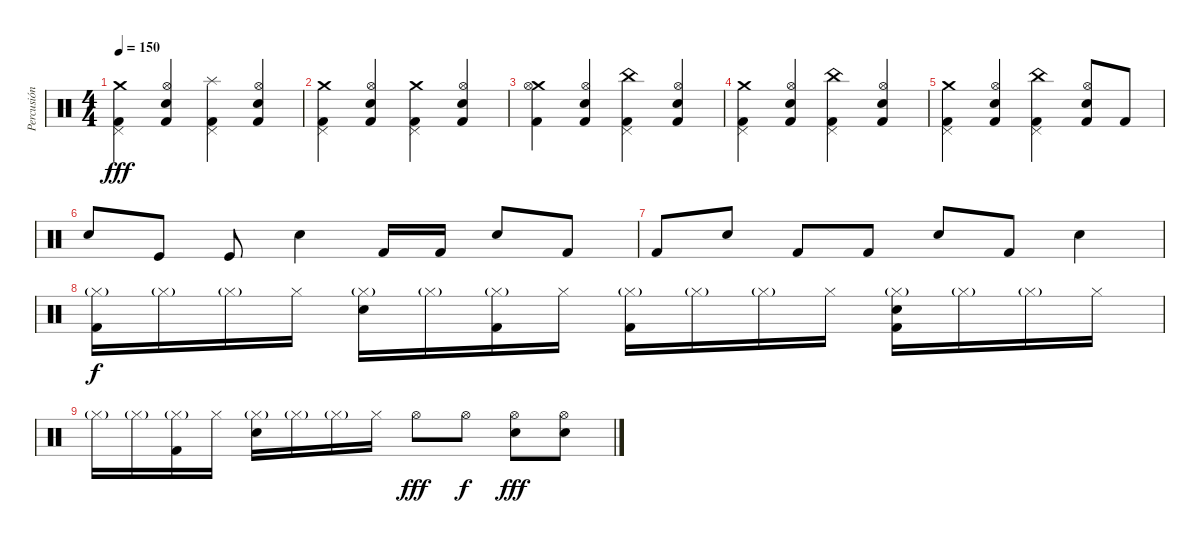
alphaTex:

\track ("Percusión" "Percusión") {instrument percussion}
\staff {score}
\articulation defaults
\ts (4 4)
\tempo 150
\clef neutral
\ks c
("Crash medium (hit)" "Kick (hit) 2" "Pedal Hi-Hat (hit)").4{dy fff} ("Hi-Hat (open)" "Kick (hit) 2" "Electric Snare (hit)").4 ("Splash (hit)" "Kick (hit) 2" "Pedal Hi-Hat (hit)").4 ("Hi-Hat (open)" "Kick (hit) 2" "Electric Snare (hit)").4 |
("Pedal Hi-Hat (hit)" "Kick (hit) 2" "Crash medium (hit)").4 ("Hi-Hat (open)" "Kick (hit) 2" "Electric Snare (hit)").4 ("Crash medium (hit)" "Kick (hit) 2" "Pedal Hi-Hat (hit)").4 ("Hi-Hat (open)" "Kick (hit) 2" "Electric Snare (hit)").4 |
("Crash medium (hit)" "Kick (hit) 2" "Hi-Hat (open)").4 ("Hi-Hat (open)" "Kick (hit) 2" "Electric Snare (hit)").4 ("China (hit)" "Kick (hit) 2" "Pedal Hi-Hat (hit)").4 ("Hi-Hat (open)" "Kick (hit) 2" "Electric Snare (hit)").4 |
("Pedal Hi-Hat (hit)" "Kick (hit) 2" "Crash medium (hit)").4 ("Hi-Hat (open)" "Kick (hit) 2" "Electric Snare (hit)").4 ("China (hit)" "Kick (hit) 2" "Pedal Hi-Hat (hit)").4 ("Hi-Hat (open)" "Kick (hit) 2" "Electric Snare (hit)").4 |
("Crash medium (hit)" "Kick (hit) 2" "Pedal Hi-Hat (hit)").4 ("Hi-Hat (open)" "Kick (hit) 2" "Electric Snare (hit)").4 ("China (hit)" "Kick (hit) 2" "Pedal Hi-Hat (hit)").4 ("Hi-Hat (open)" "Kick (hit) 2" "Electric Snare (hit)").8 "Kick (hit) 2".8 |
"Electric Snare (hit)".8 "Kick (hit)".8 "Kick (hit)".8 "Electric Snare (hit)".4 "Kick (hit) 2".16 "Kick (hit) 2".16 "Electric Snare (hit)".8 "Kick (hit) 2".8 |
"Kick (hit) 2".8 "Electric Snare (hit)".8 "Kick (hit) 2".8 "Kick (hit) 2".8 "Electric Snare (hit)".8 "Kick (hit) 2".8 "Electric Snare (hit)".4 |
("Hi-Hat (closed)"{g} "Kick (hit) 2").16{dy f} "Hi-Hat (closed)"{g}.16 "Hi-Hat (closed)"{g}.16 "Hi-Hat (closed)".16 ("Hi-Hat (closed)"{g} "Electric Snare (hit)").16 "Hi-Hat (closed)"{g}.16 ("Hi-Hat (closed)"{g} "Kick (hit) 2").16 "Hi-Hat (closed)".16 ("Hi-Hat (closed)"{g} "Kick (hit) 2").16 "Hi-Hat (closed)"{g}.16 "Hi-Hat (closed)"{g}.16 "Hi-Hat (closed)".16 ("Hi-Hat (closed)"{g} "Kick (hit) 2" "Electric Snare (hit)").16 "Hi-Hat (closed)"{g}.16 "Hi-Hat (closed)"{g}.16 "Hi-Hat (closed)".16 |
"Hi-Hat (closed)"{g}.16 "Hi-Hat (closed)"{g}.16 ("Hi-Hat (closed)"{g} "Kick (hit) 2").16 "Hi-Hat (closed)".16 ("Hi-Hat (closed)"{g} "Electric Snare (hit)").16 "Hi-Hat (closed)"{g}.16 "Hi-Hat (closed)"{g}.16 "Hi-Hat (closed)".16 "Hi-Hat (open)".8{dy fff} "Hi-Hat (open)".8{dy f} ("Hi-Hat (open)" "Electric Snare (hit)").8{dy fff} ("Electric Snare (hit)" "Hi-Hat (open)").8
